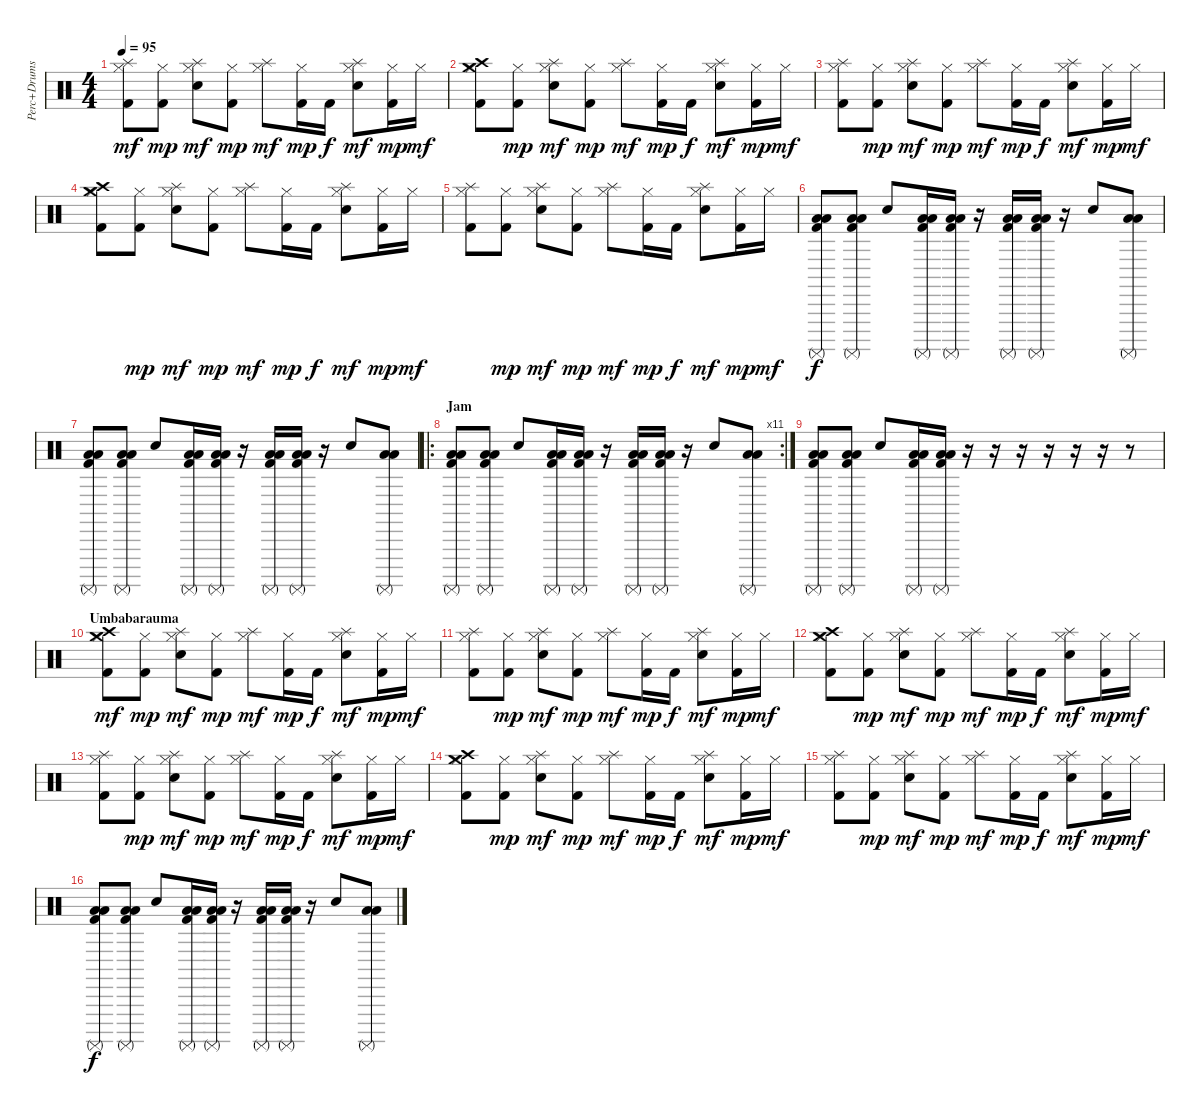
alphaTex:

\track ("Perc+Drums" "Perc+Drums") {instrument percussion}
\staff {score}
\articulation defaults
\ts (4 4)
\tempo 95
\clef neutral
\ks c
("Splash (hit)" "Hi-Hat (closed)" "Kick (hit) 2").8{dy mf} ("Hi-Hat (closed)" "Kick (hit) 2").8{dy mp} ("Splash (hit)" "Snare (hit) 2" "Hi-Hat (closed)").8{dy mf} ("Hi-Hat (closed)" "Kick (hit) 2").8{dy mp} ("Splash (hit)" "Hi-Hat (closed)").8{dy mf} ("Hi-Hat (closed)" "Kick (hit) 2").16{dy mp} "Kick (hit) 2".16{dy f} ("Splash (hit)" "Snare (hit) 2" "Hi-Hat (closed)").8{dy mf} ("Hi-Hat (closed)" "Kick (hit) 2").16{dy mp} "Hi-Hat (closed)".16{dy mf} |
("Crash medium (hit)" "Crash high (hit)" "Hi-Hat (closed)" "Kick (hit) 2").8 ("Hi-Hat (closed)" "Kick (hit) 2").8{dy mp} ("Splash (hit)" "Snare (hit) 2" "Hi-Hat (closed)").8{dy mf} ("Hi-Hat (closed)" "Kick (hit) 2").8{dy mp} ("Splash (hit)" "Hi-Hat (closed)").8{dy mf} ("Hi-Hat (closed)" "Kick (hit) 2").16{dy mp} "Kick (hit) 2".16{dy f} ("Splash (hit)" "Snare (hit) 2" "Hi-Hat (closed)").8{dy mf} ("Hi-Hat (closed)" "Kick (hit) 2").16{dy mp} "Hi-Hat (closed)".16{dy mf} |
("Splash (hit)" "Hi-Hat (closed)" "Kick (hit) 2").8 ("Hi-Hat (closed)" "Kick (hit) 2").8{dy mp} ("Splash (hit)" "Snare (hit) 2" "Hi-Hat (closed)").8{dy mf} ("Hi-Hat (closed)" "Kick (hit) 2").8{dy mp} ("Splash (hit)" "Hi-Hat (closed)").8{dy mf} ("Hi-Hat (closed)" "Kick (hit) 2").16{dy mp} "Kick (hit) 2".16{dy f} ("Splash (hit)" "Snare (hit) 2" "Hi-Hat (closed)").8{dy mf} ("Hi-Hat (closed)" "Kick (hit) 2").16{dy mp} "Hi-Hat (closed)".16{dy mf} |
("Crash medium (hit)" "Crash high (hit)" "Hi-Hat (closed)" "Kick (hit) 2").8 ("Hi-Hat (closed)" "Kick (hit) 2").8{dy mp} ("Splash (hit)" "Snare (hit) 2" "Hi-Hat (closed)").8{dy mf} ("Hi-Hat (closed)" "Kick (hit) 2").8{dy mp} ("Splash (hit)" "Hi-Hat (closed)").8{dy mf} ("Hi-Hat (closed)" "Kick (hit) 2").16{dy mp} "Kick (hit) 2".16{dy f} ("Splash (hit)" "Snare (hit) 2" "Hi-Hat (closed)").8{dy mf} ("Hi-Hat (closed)" "Kick (hit) 2").16{dy mp} "Hi-Hat (closed)".16{dy mf} |
("Splash (hit)" "Hi-Hat (closed)" "Kick (hit) 2").8 ("Hi-Hat (closed)" "Kick (hit) 2").8{dy mp} ("Splash (hit)" "Snare (hit) 2" "Hi-Hat (closed)").8{dy mf} ("Hi-Hat (closed)" "Kick (hit) 2").8{dy mp} ("Splash (hit)" "Hi-Hat (closed)").8{dy mf} ("Hi-Hat (closed)" "Kick (hit) 2").16{dy mp} "Kick (hit) 2".16{dy f} ("Splash (hit)" "Snare (hit) 2" "Hi-Hat (closed)").8{dy mf} ("Hi-Hat (closed)" "Kick (hit) 2").16{dy mp} "Hi-Hat (closed)".16{dy mf} |
("Low Floor Tom (hit)" "Low Tom (hit)" "Surdo (mute)" "Kick (hit) 2").8{dy f} ("Low Floor Tom (hit)" "Low Tom (hit)" "Surdo (mute)" "Kick (hit) 2").8 "Snare (hit) 2".8 ("Low Floor Tom (hit)" "Low Tom (hit)" "Surdo (mute)" "Kick (hit) 2").16 ("Low Floor Tom (hit)" "Low Tom (hit)" "Surdo (mute)" "Kick (hit) 2").16 r.16 ("Low Floor Tom (hit)" "Low Tom (hit)" "Surdo (mute)" "Kick (hit) 2").16 ("Low Floor Tom (hit)" "Low Tom (hit)" "Surdo (mute)" "Kick (hit) 2").16 r.16 "Snare (hit) 2".8 ("Low Floor Tom (hit)" "Low Tom (hit)" "Surdo (mute)").8 |
("Low Floor Tom (hit)" "Low Tom (hit)" "Surdo (mute)" "Kick (hit) 2").8 ("Low Floor Tom (hit)" "Low Tom (hit)" "Surdo (mute)" "Kick (hit) 2").8 "Snare (hit) 2".8 ("Low Floor Tom (hit)" "Low Tom (hit)" "Surdo (mute)" "Kick (hit) 2").16 ("Low Floor Tom (hit)" "Low Tom (hit)" "Surdo (mute)" "Kick (hit) 2").16 r.16 ("Low Floor Tom (hit)" "Low Tom (hit)" "Surdo (mute)" "Kick (hit) 2").16 ("Low Floor Tom (hit)" "Low Tom (hit)" "Surdo (mute)" "Kick (hit) 2").16 r.16 "Snare (hit) 2".8 ("Low Floor Tom (hit)" "Low Tom (hit)" "Surdo (mute)").8 |
\ro
\rc 11
\section ("" "Jam")
("Low Floor Tom (hit)" "Low Tom (hit)" "Surdo (mute)" "Kick (hit) 2").8 ("Low Floor Tom (hit)" "Low Tom (hit)" "Surdo (mute)" "Kick (hit) 2").8 "Snare (hit) 2".8 ("Low Floor Tom (hit)" "Low Tom (hit)" "Surdo (mute)" "Kick (hit) 2").16 ("Low Floor Tom (hit)" "Low Tom (hit)" "Surdo (mute)" "Kick (hit) 2").16 r.16 ("Low Floor Tom (hit)" "Low Tom (hit)" "Surdo (mute)" "Kick (hit) 2").16 ("Low Floor Tom (hit)" "Low Tom (hit)" "Surdo (mute)" "Kick (hit) 2").16 r.16 "Snare (hit) 2".8 ("Low Floor Tom (hit)" "Low Tom (hit)" "Surdo (mute)").8 |
("Low Floor Tom (hit)" "Low Tom (hit)" "Surdo (mute)" "Kick (hit) 2").8 ("Low Floor Tom (hit)" "Low Tom (hit)" "Surdo (mute)" "Kick (hit) 2").8 "Snare (hit) 2".8 ("Low Floor Tom (hit)" "Low Tom (hit)" "Surdo (mute)" "Kick (hit) 2").16 ("Low Floor Tom (hit)" "Low Tom (hit)" "Surdo (mute)" "Kick (hit) 2").16 r.16 r.16 r.16 r.16 r.16 r.16 r.8 |
\section ("" "Umbabarauma")
("Crash medium (hit)" "Crash high (hit)" "Hi-Hat (closed)" "Kick (hit) 2").8{dy mf} ("Hi-Hat (closed)" "Kick (hit) 2").8{dy mp} ("Splash (hit)" "Snare (hit) 2" "Hi-Hat (closed)").8{dy mf} ("Hi-Hat (closed)" "Kick (hit) 2").8{dy mp} ("Splash (hit)" "Hi-Hat (closed)").8{dy mf} ("Hi-Hat (closed)" "Kick (hit) 2").16{dy mp} "Kick (hit) 2".16{dy f} ("Splash (hit)" "Snare (hit) 2" "Hi-Hat (closed)").8{dy mf} ("Hi-Hat (closed)" "Kick (hit) 2").16{dy mp} "Hi-Hat (closed)".16{dy mf} |
("Splash (hit)" "Hi-Hat (closed)" "Kick (hit) 2").8 ("Hi-Hat (closed)" "Kick (hit) 2").8{dy mp} ("Splash (hit)" "Snare (hit) 2" "Hi-Hat (closed)").8{dy mf} ("Hi-Hat (closed)" "Kick (hit) 2").8{dy mp} ("Splash (hit)" "Hi-Hat (closed)").8{dy mf} ("Hi-Hat (closed)" "Kick (hit) 2").16{dy mp} "Kick (hit) 2".16{dy f} ("Splash (hit)" "Snare (hit) 2" "Hi-Hat (closed)").8{dy mf} ("Hi-Hat (closed)" "Kick (hit) 2").16{dy mp} "Hi-Hat (closed)".16{dy mf} |
("Crash medium (hit)" "Crash high (hit)" "Hi-Hat (closed)" "Kick (hit) 2").8 ("Hi-Hat (closed)" "Kick (hit) 2").8{dy mp} ("Splash (hit)" "Snare (hit) 2" "Hi-Hat (closed)").8{dy mf} ("Hi-Hat (closed)" "Kick (hit) 2").8{dy mp} ("Splash (hit)" "Hi-Hat (closed)").8{dy mf} ("Hi-Hat (closed)" "Kick (hit) 2").16{dy mp} "Kick (hit) 2".16{dy f} ("Splash (hit)" "Snare (hit) 2" "Hi-Hat (closed)").8{dy mf} ("Hi-Hat (closed)" "Kick (hit) 2").16{dy mp} "Hi-Hat (closed)".16{dy mf} |
("Splash (hit)" "Hi-Hat (closed)" "Kick (hit) 2").8 ("Hi-Hat (closed)" "Kick (hit) 2").8{dy mp} ("Splash (hit)" "Snare (hit) 2" "Hi-Hat (closed)").8{dy mf} ("Hi-Hat (closed)" "Kick (hit) 2").8{dy mp} ("Splash (hit)" "Hi-Hat (closed)").8{dy mf} ("Hi-Hat (closed)" "Kick (hit) 2").16{dy mp} "Kick (hit) 2".16{dy f} ("Splash (hit)" "Snare (hit) 2" "Hi-Hat (closed)").8{dy mf} ("Hi-Hat (closed)" "Kick (hit) 2").16{dy mp} "Hi-Hat (closed)".16{dy mf} |
("Crash medium (hit)" "Crash high (hit)" "Hi-Hat (closed)" "Kick (hit) 2").8 ("Hi-Hat (closed)" "Kick (hit) 2").8{dy mp} ("Splash (hit)" "Snare (hit) 2" "Hi-Hat (closed)").8{dy mf} ("Hi-Hat (closed)" "Kick (hit) 2").8{dy mp} ("Splash (hit)" "Hi-Hat (closed)").8{dy mf} ("Hi-Hat (closed)" "Kick (hit) 2").16{dy mp} "Kick (hit) 2".16{dy f} ("Splash (hit)" "Snare (hit) 2" "Hi-Hat (closed)").8{dy mf} ("Hi-Hat (closed)" "Kick (hit) 2").16{dy mp} "Hi-Hat (closed)".16{dy mf} |
("Splash (hit)" "Hi-Hat (closed)" "Kick (hit) 2").8 ("Hi-Hat (closed)" "Kick (hit) 2").8{dy mp} ("Splash (hit)" "Snare (hit) 2" "Hi-Hat (closed)").8{dy mf} ("Hi-Hat (closed)" "Kick (hit) 2").8{dy mp} ("Splash (hit)" "Hi-Hat (closed)").8{dy mf} ("Hi-Hat (closed)" "Kick (hit) 2").16{dy mp} "Kick (hit) 2".16{dy f} ("Splash (hit)" "Snare (hit) 2" "Hi-Hat (closed)").8{dy mf} ("Hi-Hat (closed)" "Kick (hit) 2").16{dy mp} "Hi-Hat (closed)".16{dy mf} |
("Low Floor Tom (hit)" "Low Tom (hit)" "Surdo (mute)" "Kick (hit) 2").8{dy f} ("Low Floor Tom (hit)" "Low Tom (hit)" "Surdo (mute)" "Kick (hit) 2").8 "Snare (hit) 2".8 ("Low Floor Tom (hit)" "Low Tom (hit)" "Surdo (mute)" "Kick (hit) 2").16 ("Low Floor Tom (hit)" "Low Tom (hit)" "Surdo (mute)" "Kick (hit) 2").16 r.16 ("Low Floor Tom (hit)" "Low Tom (hit)" "Surdo (mute)" "Kick (hit) 2").16 ("Low Floor Tom (hit)" "Low Tom (hit)" "Surdo (mute)" "Kick (hit) 2").16 r.16 "Snare (hit) 2".8 ("Low Floor Tom (hit)" "Low Tom (hit)" "Surdo (mute)").8
